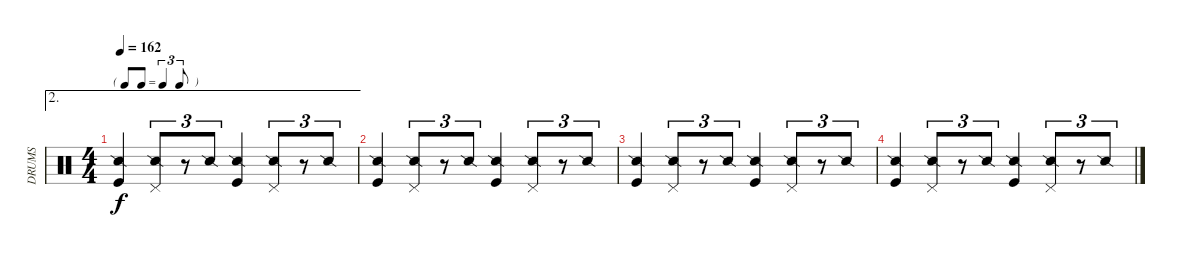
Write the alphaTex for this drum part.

\track ("DRUMS" "DRUMS") {instrument percussion}
\staff {score}
\articulation defaults
\ae 2
\ts (4 4)
\tf triplet8th
\tempo 162
\clef neutral
\ks c
("Snare (side stick) 2" "Kick (hit)").4{dy f} ("Snare (side stick) 2" "Pedal Hi-Hat (hit)").8{tu (3 2)} r.8{tu (3 2)} "Snare (side stick) 2".8{tu (3 2)} ("Snare (side stick) 2" "Kick (hit)").4 ("Snare (side stick) 2" "Pedal Hi-Hat (hit)").8{tu (3 2)} r.8{tu (3 2)} "Snare (side stick) 2".8{tu (3 2)} |
("Snare (side stick) 2" "Kick (hit)").4 ("Snare (side stick) 2" "Pedal Hi-Hat (hit)").8{tu (3 2)} r.8{tu (3 2)} "Snare (side stick) 2".8{tu (3 2)} ("Snare (side stick) 2" "Kick (hit)").4 ("Snare (side stick) 2" "Pedal Hi-Hat (hit)").8{tu (3 2)} r.8{tu (3 2)} "Snare (side stick) 2".8{tu (3 2)} |
("Snare (side stick) 2" "Kick (hit)").4 ("Snare (side stick) 2" "Pedal Hi-Hat (hit)").8{tu (3 2)} r.8{tu (3 2)} "Snare (side stick) 2".8{tu (3 2)} ("Snare (side stick) 2" "Kick (hit)").4 ("Snare (side stick) 2" "Pedal Hi-Hat (hit)").8{tu (3 2)} r.8{tu (3 2)} "Snare (side stick) 2".8{tu (3 2)} |
("Snare (side stick) 2" "Kick (hit)").4 ("Snare (side stick) 2" "Pedal Hi-Hat (hit)").8{tu (3 2)} r.8{tu (3 2)} "Snare (side stick) 2".8{tu (3 2)} ("Snare (side stick) 2" "Kick (hit)").4 ("Snare (side stick) 2" "Pedal Hi-Hat (hit)").8{tu (3 2)} r.8{tu (3 2)} "Snare (side stick) 2".8{tu (3 2)}
